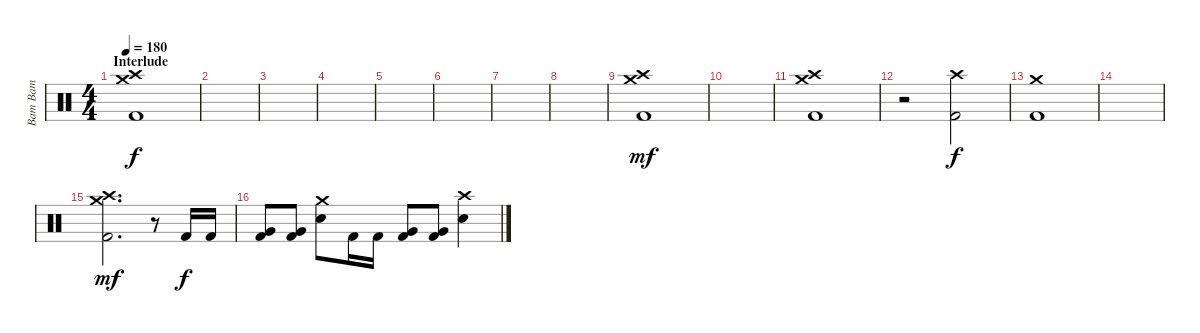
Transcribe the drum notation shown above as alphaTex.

\track ("Bam Bam" "Bam Bam") {instrument percussion}
\staff {score}
\articulation defaults
\ts (4 4)
\section ("" "Interlude")
\tempo 180
\clef neutral
\ks c
("Crash medium (hit)" "Crash high (hit)" "Kick (hit) 2").1{dy f} |
|
|
|
|
|
|
|
("Crash medium (hit)" "Crash high (hit)" "Kick (hit) 2").1{dy mf} |
|
("Crash medium (hit)" "Crash high (hit)" "Kick (hit) 2").1 |
r.2 ("Crash high (hit)" "Kick (hit) 2").2{dy f} |
("Crash medium (hit)" "Kick (hit) 2").1 |
|
("Crash medium (hit)" "Crash high (hit)" "Kick (hit) 2").2{d dy mf} r.8 "Kick (hit) 2".16{dy f} "Kick (hit) 2".16 |
("Very Low Tom (hit)" "Kick (hit) 2").8 ("Very Low Tom (hit)" "Kick (hit) 2").8 ("Crash medium (hit)" "Electric Snare (hit)").8 "Kick (hit) 2".16 "Kick (hit) 2".16 ("Very Low Tom (hit)" "Kick (hit) 2").8 ("Very Low Tom (hit)" "Kick (hit) 2").8 ("Crash high (hit)" "Electric Snare (hit)").4
